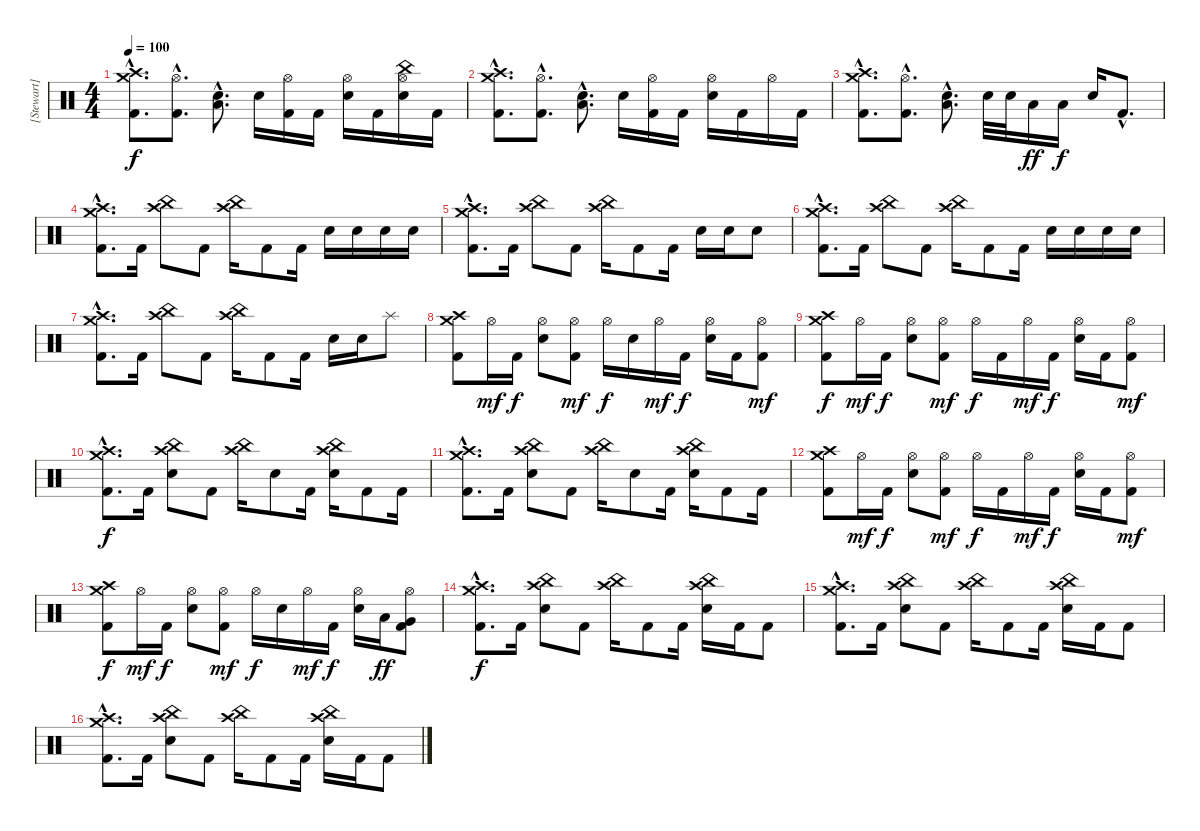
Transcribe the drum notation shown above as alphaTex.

\track ("[Stewart]" "[Stewart]") {instrument percussion}
\staff {score}
\articulation defaults
\ts (4 4)
\tempo 100
\clef neutral
\ks c
("Crash high (hit)"{hac} "Crash medium (hit)"{hac} "Kick (hit) 2"{hac}).8{d dy f} ("Hi-Hat (open)"{hac} "Kick (hit) 2"{hac}).8{d} ("Electric Snare (hit)"{hac} "Low Tom (hit)"{hac}).8{d} "Electric Snare (hit)".16 ("Hi-Hat (open)" "Kick (hit) 2").16 "Kick (hit) 2".16 ("Hi-Hat (open)" "Electric Snare (hit)").16 "Kick (hit) 2".16 ("Hi-Hat (open)" "China (hit)" "Electric Snare (hit)").16 "Kick (hit) 2".16 |
("Crash high (hit)"{hac} "Crash medium (hit)"{hac} "Kick (hit) 2"{hac}).8{d} ("Hi-Hat (open)"{hac} "Kick (hit) 2"{hac}).8{d} ("Electric Snare (hit)"{hac} "Low Tom (hit)"{hac}).8{d} "Electric Snare (hit)".16 ("Hi-Hat (open)" "Kick (hit) 2").16 "Kick (hit) 2".16 ("Hi-Hat (open)" "Electric Snare (hit)").16 "Kick (hit) 2".16 "Hi-Hat (open)".16 "Kick (hit) 2".16 |
("Crash high (hit)"{hac} "Crash medium (hit)"{hac} "Kick (hit) 2"{hac}).8{d} ("Hi-Hat (open)"{hac} "Kick (hit) 2"{hac}).8{d} ("Electric Snare (hit)"{hac} "Low Tom (hit)"{hac}).8{d} "Electric Snare (hit)".32 "Electric Snare (hit)".32 "Low Tom (hit)".16{dy ff} "Low Tom (hit)".16{dy f} "Electric Snare (hit)".16 "Kick (hit) 2"{hac}.8{d} |
("Crash high (hit)"{hac} "Crash medium (hit)"{hac} "Kick (hit) 2"{hac}).8{d} "Kick (hit) 2".16 ("Crash high (hit)" "China (hit)").8 "Kick (hit) 2".8 ("Crash high (hit)" "China (hit)").16 "Kick (hit) 2".8 "Kick (hit) 2".16 "Electric Snare (hit)".16 "Electric Snare (hit)".16 "Electric Snare (hit)".16 "Electric Snare (hit)".16 |
("Crash high (hit)"{hac} "Crash medium (hit)"{hac} "Kick (hit) 2"{hac}).8{d} "Kick (hit) 2".16 ("Crash high (hit)" "China (hit)").8 "Kick (hit) 2".8 ("Crash high (hit)" "China (hit)").16 "Kick (hit) 2".8 "Kick (hit) 2".16 "Electric Snare (hit)".16 "Electric Snare (hit)".16 "Electric Snare (hit)".8 |
("Crash high (hit)"{hac} "Crash medium (hit)"{hac} "Kick (hit) 2"{hac}).8{d} "Kick (hit) 2".16 ("Crash high (hit)" "China (hit)").8 "Kick (hit) 2".8 ("Crash high (hit)" "China (hit)").16 "Kick (hit) 2".8 "Kick (hit) 2".16 "Electric Snare (hit)".16 "Electric Snare (hit)".16 "Electric Snare (hit)".16 "Electric Snare (hit)".16 |
("Crash high (hit)"{hac} "Crash medium (hit)"{hac} "Kick (hit) 2"{hac}).8{d} "Kick (hit) 2".16 ("Crash high (hit)" "China (hit)").8 "Kick (hit) 2".8 ("Crash high (hit)" "China (hit)").16 "Kick (hit) 2".8 "Kick (hit) 2".16 "Electric Snare (hit)".16 "Electric Snare (hit)".16 "Splash (hit)".8 |
("Crash high (hit)" "Crash medium (hit)" "Kick (hit) 2").8 "Hi-Hat (open)".16{dy mf} "Kick (hit) 2".16{dy f} ("Hi-Hat (open)" "Electric Snare (hit)").8 ("Hi-Hat (open)" "Kick (hit) 2").8{dy mf} "Hi-Hat (open)".16{dy f} "Electric Snare (hit)".16 "Hi-Hat (open)".16{dy mf} "Kick (hit) 2".16{dy f} ("Hi-Hat (open)" "Electric Snare (hit)").16 "Kick (hit) 2".16 ("Hi-Hat (open)" "Kick (hit) 2").8{dy mf} |
("Crash high (hit)" "Crash medium (hit)" "Kick (hit) 2").8{dy f} "Hi-Hat (open)".16{dy mf} "Kick (hit) 2".16{dy f} ("Hi-Hat (open)" "Electric Snare (hit)").8 ("Hi-Hat (open)" "Kick (hit) 2").8{dy mf} "Hi-Hat (open)".16{dy f} "Kick (hit) 2".16 "Hi-Hat (open)".16{dy mf} "Kick (hit) 2".16{dy f} ("Hi-Hat (open)" "Electric Snare (hit)").16 "Kick (hit) 2".16 ("Hi-Hat (open)" "Kick (hit) 2").8{dy mf} |
("Crash high (hit)"{hac} "Crash medium (hit)"{hac} "Kick (hit) 2"{hac}).8{d dy f} "Kick (hit) 2".16 ("Crash high (hit)" "China (hit)" "Electric Snare (hit)").8 "Kick (hit) 2".8 ("Crash high (hit)" "China (hit)").16 "Electric Snare (hit)".8 "Kick (hit) 2".16 ("Crash high (hit)" "China (hit)" "Electric Snare (hit)").16 "Kick (hit) 2".8 "Kick (hit) 2".16 |
("Crash high (hit)"{hac} "Crash medium (hit)"{hac} "Kick (hit) 2"{hac}).8{d} "Kick (hit) 2".16 ("Crash high (hit)" "China (hit)" "Electric Snare (hit)").8 "Kick (hit) 2".8 ("Crash high (hit)" "China (hit)").16 "Electric Snare (hit)".8 "Kick (hit) 2".16 ("Crash high (hit)" "China (hit)" "Electric Snare (hit)").16 "Kick (hit) 2".8 "Kick (hit) 2".16 |
("Crash high (hit)" "Crash medium (hit)" "Kick (hit) 2").8 "Hi-Hat (open)".16{dy mf} "Kick (hit) 2".16{dy f} ("Hi-Hat (open)" "Electric Snare (hit)").8 ("Hi-Hat (open)" "Kick (hit) 2").8{dy mf} "Hi-Hat (open)".16{dy f} "Kick (hit) 2".16 "Hi-Hat (open)".16{dy mf} "Kick (hit) 2".16{dy f} ("Hi-Hat (open)" "Electric Snare (hit)").16 "Kick (hit) 2".16 ("Hi-Hat (open)" "Kick (hit) 2").8{dy mf} |
("Crash high (hit)" "Crash medium (hit)" "Kick (hit) 2").8{dy f} "Hi-Hat (open)".16{dy mf} "Kick (hit) 2".16{dy f} ("Hi-Hat (open)" "Electric Snare (hit)").8 ("Hi-Hat (open)" "Kick (hit) 2").8{dy mf} "Hi-Hat (open)".16{dy f} "Electric Snare (hit)".16 "Hi-Hat (open)".16{dy mf} "Kick (hit) 2".16{dy f} ("Hi-Hat (open)" "Electric Snare (hit)").16 "Low Tom (hit)".16{dy ff} ("Hi-Hat (open)" "Very Low Tom (hit)" "Kick (hit) 2").8 |
("Crash high (hit)"{hac} "Crash medium (hit)"{hac} "Kick (hit) 2"{hac}).8{d dy f} "Kick (hit) 2".16 ("Crash high (hit)" "China (hit)" "Electric Snare (hit)").8 "Kick (hit) 2".8 ("Crash high (hit)" "China (hit)").16 "Kick (hit) 2".8 "Kick (hit) 2".16 ("Crash high (hit)" "China (hit)" "Electric Snare (hit)").16 "Kick (hit) 2".16 "Kick (hit) 2".8 |
("Crash high (hit)"{hac} "Crash medium (hit)"{hac} "Kick (hit) 2"{hac}).8{d} "Kick (hit) 2".16 ("Crash high (hit)" "China (hit)" "Electric Snare (hit)").8 "Kick (hit) 2".8 ("Crash high (hit)" "China (hit)").16 "Kick (hit) 2".8 "Kick (hit) 2".16 ("Crash high (hit)" "China (hit)" "Electric Snare (hit)").16 "Kick (hit) 2".16 "Kick (hit) 2".8 |
("Crash high (hit)"{hac} "Crash medium (hit)"{hac} "Kick (hit) 2"{hac}).8{d} "Kick (hit) 2".16 ("Crash high (hit)" "China (hit)" "Electric Snare (hit)").8 "Kick (hit) 2".8 ("Crash high (hit)" "China (hit)").16 "Kick (hit) 2".8 "Kick (hit) 2".16 ("Crash high (hit)" "China (hit)" "Electric Snare (hit)").16 "Kick (hit) 2".16 "Kick (hit) 2".8
